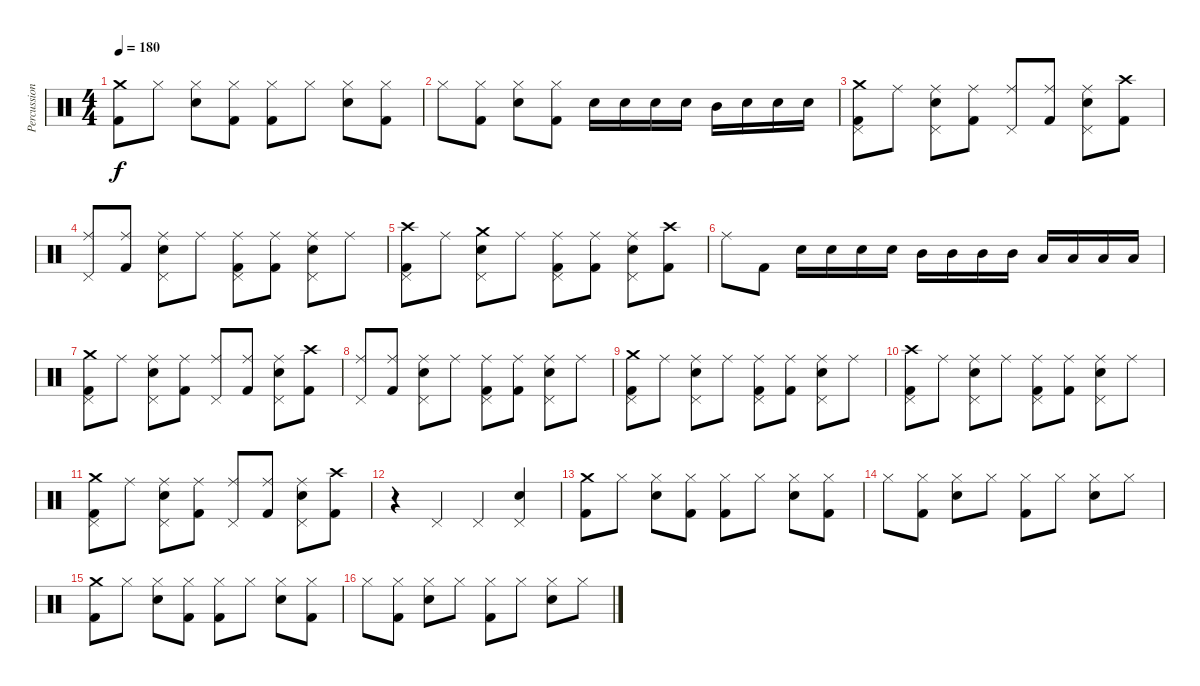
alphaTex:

\track ("Percussion" "Percussion") {instrument percussion}
\staff {score}
\articulation defaults
\ts (4 4)
\tempo 180
\clef neutral
\ks c
("Crash medium (hit)" "Kick (hit) 2").8{dy f} "Hi-Hat (closed)".8 ("Hi-Hat (closed)" "Electric Snare (hit)").8 ("Hi-Hat (closed)" "Kick (hit) 2").8 ("Hi-Hat (closed)" "Kick (hit) 2").8 "Hi-Hat (closed)".8 ("Hi-Hat (closed)" "Electric Snare (hit)").8 ("Hi-Hat (closed)" "Kick (hit) 2").8 |
"Hi-Hat (closed)".8 ("Hi-Hat (closed)" "Kick (hit) 2").8 ("Hi-Hat (closed)" "Electric Snare (hit)").8 ("Hi-Hat (closed)" "Kick (hit) 2").8 "Electric Snare (hit)".16 "Electric Snare (hit)".16 "Electric Snare (hit)".16 "Electric Snare (hit)".16 "Mid Tom (hit)".16 "Electric Snare (hit)".16 "Electric Snare (hit)".16 "Electric Snare (hit)".16 |
("Crash medium (hit)" "Pedal Hi-Hat (hit)" "Kick (hit) 2").8 "Ride (middle)".8 ("Ride (middle)" "Pedal Hi-Hat (hit)" "Electric Snare (hit)").8 ("Ride (middle)" "Kick (hit) 2").8 ("Ride (middle)" "Pedal Hi-Hat (hit)").8 ("Ride (middle)" "Kick (hit) 2").8 ("Ride (middle)" "Pedal Hi-Hat (hit)" "Electric Snare (hit)").8 ("Crash high (hit)" "Kick (hit) 2").8 |
("Ride (middle)" "Pedal Hi-Hat (hit)").8 ("Ride (middle)" "Kick (hit) 2").8 ("Ride (middle)" "Pedal Hi-Hat (hit)" "Electric Snare (hit)").8 "Ride (middle)".8 ("Ride (middle)" "Pedal Hi-Hat (hit)" "Kick (hit) 2").8 ("Ride (middle)" "Kick (hit) 2").8 ("Ride (middle)" "Pedal Hi-Hat (hit)" "Electric Snare (hit)").8 "Ride (middle)".8 |
("Crash high (hit)" "Pedal Hi-Hat (hit)" "Kick (hit) 2").8 "Ride (middle)".8 ("Crash medium (hit)" "Pedal Hi-Hat (hit)" "Electric Snare (hit)").8 "Ride (middle)".8 ("Ride (middle)" "Pedal Hi-Hat (hit)" "Kick (hit) 2").8 ("Ride (middle)" "Kick (hit) 2").8 ("Ride (middle)" "Pedal Hi-Hat (hit)" "Electric Snare (hit)").8 ("Crash high (hit)" "Kick (hit) 2").8 |
"Ride (middle)".8 "Kick (hit) 2".8 "Electric Snare (hit)".16 "Electric Snare (hit)".16 "Electric Snare (hit)".16 "Electric Snare (hit)".16 "Mid Tom (hit)".16 "Mid Tom (hit)".16 "Mid Tom (hit)".16 "Mid Tom (hit)".16 "Low Tom (hit)".16 "Low Tom (hit)".16 "Low Tom (hit)".16 "Low Tom (hit)".16 |
("Crash medium (hit)" "Pedal Hi-Hat (hit)" "Kick (hit) 2").8 "Ride (middle)".8 ("Ride (middle)" "Pedal Hi-Hat (hit)" "Electric Snare (hit)").8 ("Ride (middle)" "Kick (hit) 2").8 ("Ride (middle)" "Pedal Hi-Hat (hit)").8 ("Ride (middle)" "Kick (hit) 2").8 ("Ride (middle)" "Pedal Hi-Hat (hit)" "Electric Snare (hit)").8 ("Crash high (hit)" "Kick (hit) 2").8 |
("Ride (middle)" "Pedal Hi-Hat (hit)").8 ("Ride (middle)" "Kick (hit) 2").8 ("Ride (middle)" "Pedal Hi-Hat (hit)" "Electric Snare (hit)").8 "Ride (middle)".8 ("Ride (middle)" "Pedal Hi-Hat (hit)" "Kick (hit) 2").8 ("Ride (middle)" "Kick (hit) 2").8 ("Ride (middle)" "Pedal Hi-Hat (hit)" "Electric Snare (hit)").8 "Ride (middle)".8 |
("Crash medium (hit)" "Pedal Hi-Hat (hit)" "Kick (hit) 2").8 "Ride (middle)".8 ("Ride (middle)" "Pedal Hi-Hat (hit)" "Electric Snare (hit)").8 "Ride (middle)".8 ("Ride (middle)" "Pedal Hi-Hat (hit)" "Kick (hit) 2").8 ("Ride (middle)" "Kick (hit) 2").8 ("Ride (middle)" "Pedal Hi-Hat (hit)" "Electric Snare (hit)").8 "Ride (middle)".8 |
("Crash high (hit)" "Pedal Hi-Hat (hit)" "Kick (hit) 2").8 "Ride (middle)".8 ("Ride (middle)" "Pedal Hi-Hat (hit)" "Electric Snare (hit)").8 "Ride (middle)".8 ("Ride (middle)" "Pedal Hi-Hat (hit)" "Kick (hit) 2").8 ("Ride (middle)" "Kick (hit) 2").8 ("Ride (middle)" "Pedal Hi-Hat (hit)" "Electric Snare (hit)").8 "Ride (middle)".8 |
("Crash medium (hit)" "Pedal Hi-Hat (hit)" "Kick (hit) 2").8 "Ride (middle)".8 ("Ride (middle)" "Pedal Hi-Hat (hit)" "Electric Snare (hit)").8 ("Ride (middle)" "Kick (hit) 2").8 ("Ride (middle)" "Pedal Hi-Hat (hit)").8 ("Ride (middle)" "Kick (hit) 2").8 ("Ride (middle)" "Pedal Hi-Hat (hit)" "Electric Snare (hit)").8 ("Crash high (hit)" "Kick (hit) 2").8 |
r.4 "Pedal Hi-Hat (hit)".4 "Pedal Hi-Hat (hit)".4 ("Pedal Hi-Hat (hit)" "Electric Snare (hit)").4 |
("Crash medium (hit)" "Kick (hit) 2").8 "Hi-Hat (closed)".8 ("Hi-Hat (closed)" "Electric Snare (hit)").8 ("Hi-Hat (closed)" "Kick (hit) 2").8 ("Hi-Hat (closed)" "Kick (hit) 2").8 "Hi-Hat (closed)".8 ("Hi-Hat (closed)" "Electric Snare (hit)").8 ("Hi-Hat (closed)" "Kick (hit) 2").8 |
"Hi-Hat (closed)".8 ("Hi-Hat (closed)" "Kick (hit) 2").8 ("Hi-Hat (closed)" "Electric Snare (hit)").8 "Hi-Hat (closed)".8 ("Hi-Hat (closed)" "Kick (hit) 2").8 "Hi-Hat (closed)".8 ("Hi-Hat (closed)" "Electric Snare (hit)").8 "Hi-Hat (closed)".8 |
("Crash medium (hit)" "Kick (hit) 2").8 "Hi-Hat (closed)".8 ("Hi-Hat (closed)" "Electric Snare (hit)").8 ("Hi-Hat (closed)" "Kick (hit) 2").8 ("Hi-Hat (closed)" "Kick (hit) 2").8 "Hi-Hat (closed)".8 ("Hi-Hat (closed)" "Electric Snare (hit)").8 ("Hi-Hat (closed)" "Kick (hit) 2").8 |
"Hi-Hat (closed)".8 ("Hi-Hat (closed)" "Kick (hit) 2").8 ("Hi-Hat (closed)" "Electric Snare (hit)").8 "Hi-Hat (closed)".8 ("Hi-Hat (closed)" "Kick (hit) 2").8 "Hi-Hat (closed)".8 ("Hi-Hat (closed)" "Electric Snare (hit)").8 "Hi-Hat (closed)".8
